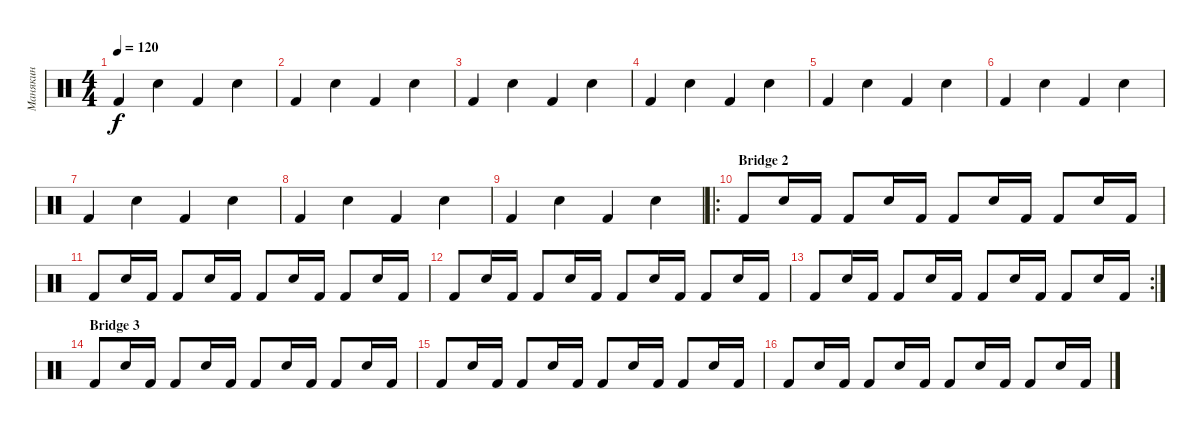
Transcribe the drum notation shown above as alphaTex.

\track ("Манякин" "Манякин") {instrument percussion}
\staff {score}
\articulation defaults
\ts (4 4)
\tempo 120
\clef neutral
\ks c "Kick (hit) 2".4{dy f} "Snare (hit) 2".4 "Kick (hit) 2".4 "Snare (hit) 2".4
|
"Kick (hit) 2".4 "Snare (hit) 2".4 "Kick (hit) 2".4 "Snare (hit) 2".4 |
"Kick (hit) 2".4 "Snare (hit) 2".4 "Kick (hit) 2".4 "Snare (hit) 2".4 |
"Kick (hit) 2".4 "Snare (hit) 2".4 "Kick (hit) 2".4 "Snare (hit) 2".4 |
"Kick (hit) 2".4 "Snare (hit) 2".4 "Kick (hit) 2".4 "Snare (hit) 2".4 |
"Kick (hit) 2".4 "Snare (hit) 2".4 "Kick (hit) 2".4 "Snare (hit) 2".4 |
"Kick (hit) 2".4 "Snare (hit) 2".4 "Kick (hit) 2".4 "Snare (hit) 2".4 |
"Kick (hit) 2".4 "Snare (hit) 2".4 "Kick (hit) 2".4 "Snare (hit) 2".4 |
"Kick (hit) 2".4 "Snare (hit) 2".4 "Kick (hit) 2".4 "Snare (hit) 2".4 |
\ro
\section ("" "Bridge 2")
"Kick (hit) 2".8 "Snare (hit) 2".16 "Kick (hit) 2".16 "Kick (hit) 2".8 "Snare (hit) 2".16 "Kick (hit) 2".16 "Kick (hit) 2".8 "Snare (hit) 2".16 "Kick (hit) 2".16 "Kick (hit) 2".8 "Snare (hit) 2".16 "Kick (hit) 2".16 |
"Kick (hit) 2".8 "Snare (hit) 2".16 "Kick (hit) 2".16 "Kick (hit) 2".8 "Snare (hit) 2".16 "Kick (hit) 2".16 "Kick (hit) 2".8 "Snare (hit) 2".16 "Kick (hit) 2".16 "Kick (hit) 2".8 "Snare (hit) 2".16 "Kick (hit) 2".16 |
"Kick (hit) 2".8 "Snare (hit) 2".16 "Kick (hit) 2".16 "Kick (hit) 2".8 "Snare (hit) 2".16 "Kick (hit) 2".16 "Kick (hit) 2".8 "Snare (hit) 2".16 "Kick (hit) 2".16 "Kick (hit) 2".8 "Snare (hit) 2".16 "Kick (hit) 2".16 |
\rc 2 "Kick (hit) 2".8 "Snare (hit) 2".16 "Kick (hit) 2".16 "Kick (hit) 2".8 "Snare (hit) 2".16 "Kick (hit) 2".16 "Kick (hit) 2".8 "Snare (hit) 2".16 "Kick (hit) 2".16 "Kick (hit) 2".8 "Snare (hit) 2".16 "Kick (hit) 2".16
|
\section ("" "Bridge 3")
"Kick (hit) 2".8 "Snare (hit) 2".16 "Kick (hit) 2".16 "Kick (hit) 2".8 "Snare (hit) 2".16 "Kick (hit) 2".16 "Kick (hit) 2".8 "Snare (hit) 2".16 "Kick (hit) 2".16 "Kick (hit) 2".8 "Snare (hit) 2".16 "Kick (hit) 2".16 |
"Kick (hit) 2".8 "Snare (hit) 2".16 "Kick (hit) 2".16 "Kick (hit) 2".8 "Snare (hit) 2".16 "Kick (hit) 2".16 "Kick (hit) 2".8 "Snare (hit) 2".16 "Kick (hit) 2".16 "Kick (hit) 2".8 "Snare (hit) 2".16 "Kick (hit) 2".16 |
"Kick (hit) 2".8 "Snare (hit) 2".16 "Kick (hit) 2".16 "Kick (hit) 2".8 "Snare (hit) 2".16 "Kick (hit) 2".16 "Kick (hit) 2".8 "Snare (hit) 2".16 "Kick (hit) 2".16 "Kick (hit) 2".8 "Snare (hit) 2".16 "Kick (hit) 2".16
